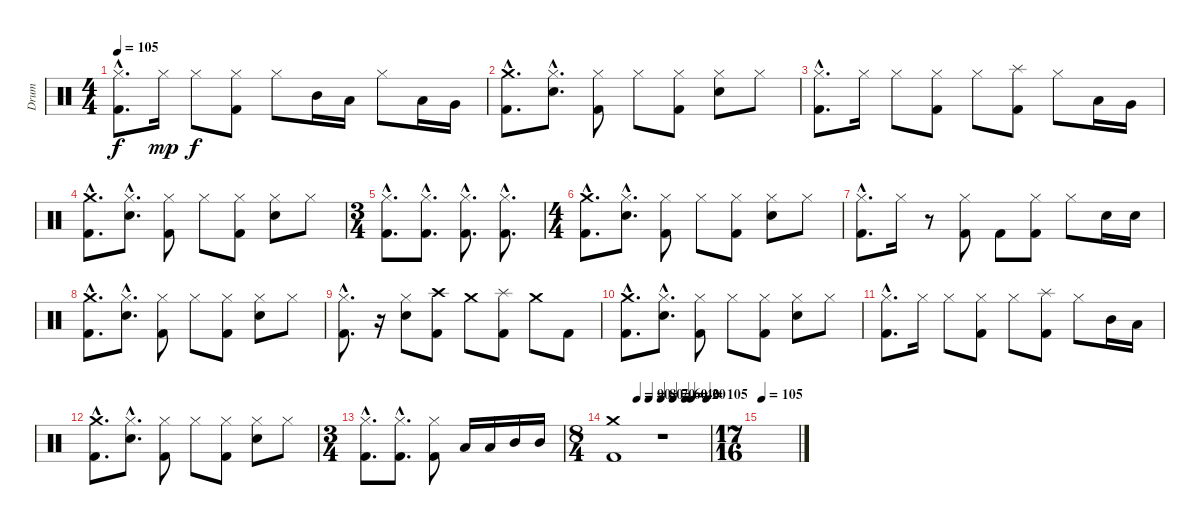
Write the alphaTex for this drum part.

\track ("Drum" "Drum") {instrument percussion}
\staff {score}
\articulation defaults
\ts (4 4)
\tempo 105
\clef neutral
\ks c
("Hi-Hat (closed)"{hac} "Kick (hit) 2"{hac}).8{d dy f} "Hi-Hat (closed)".16{dy mp} "Hi-Hat (closed)".8{dy f} ("Hi-Hat (closed)" "Kick (hit) 2").8 "Hi-Hat (closed)".8 "Mid Tom (hit)".16 "Low Tom (hit)".16 "Hi-Hat (closed)".8 "Low Tom (hit)".16 "Very Low Tom (hit)".16 |
("Crash medium (hit)"{hac} "Kick (hit) 2"{hac}).8{d} ("Hi-Hat (closed)"{hac} "Snare (hit) 2"{hac}).8{d} ("Hi-Hat (closed)" "Kick (hit) 2").8 "Hi-Hat (closed)".8 ("Hi-Hat (closed)" "Kick (hit) 2").8 ("Hi-Hat (closed)" "Snare (hit) 2").8 "Hi-Hat (closed)".8 |
("Hi-Hat (closed)"{hac} "Kick (hit) 2"{hac}).8{d} "Hi-Hat (closed)".16 "Hi-Hat (closed)".8 ("Hi-Hat (closed)" "Kick (hit) 2").8 "Hi-Hat (closed)".8 ("Splash (hit)" "Kick (hit) 2").8 "Hi-Hat (closed)".8 "Low Tom (hit)".16 "Very Low Tom (hit)".16 |
("Crash medium (hit)"{hac} "Kick (hit) 2"{hac}).8{d} ("Hi-Hat (closed)"{hac} "Snare (hit) 2"{hac}).8{d} ("Hi-Hat (closed)" "Kick (hit) 2").8 "Hi-Hat (closed)".8 ("Hi-Hat (closed)" "Kick (hit) 2").8 ("Hi-Hat (closed)" "Snare (hit) 2").8 "Hi-Hat (closed)".8 |
\ts (3 4)
("Hi-Hat (closed)"{hac} "Kick (hit) 2"{hac}).8{d} ("Hi-Hat (closed)"{hac} "Kick (hit) 2"{hac}).8{d} ("Hi-Hat (closed)"{hac} "Kick (hit) 2"{hac}).8{d} ("Hi-Hat (closed)"{hac} "Kick (hit) 2"{hac}).8{d} |
\ts (4 4)
("Crash medium (hit)"{hac} "Kick (hit) 2"{hac}).8{d} ("Hi-Hat (closed)"{hac} "Snare (hit) 2"{hac}).8{d} ("Hi-Hat (closed)" "Kick (hit) 2").8 "Hi-Hat (closed)".8 ("Hi-Hat (closed)" "Kick (hit) 2").8 ("Hi-Hat (closed)" "Snare (hit) 2").8 "Hi-Hat (closed)".8 |
("Hi-Hat (closed)"{hac} "Kick (hit) 2"{hac}).8{d} "Hi-Hat (closed)".16 r.8 ("Hi-Hat (closed)" "Kick (hit) 2").8 "Kick (hit) 2".8 ("Hi-Hat (closed)" "Kick (hit) 2").8 "Hi-Hat (closed)".8 "Snare (hit) 2".16 "Snare (hit) 2".16 |
("Crash medium (hit)"{hac} "Kick (hit) 2"{hac}).8{d} ("Hi-Hat (closed)"{hac} "Snare (hit) 2"{hac}).8{d} ("Hi-Hat (closed)" "Kick (hit) 2").8 "Hi-Hat (closed)".8 ("Hi-Hat (closed)" "Kick (hit) 2").8 ("Hi-Hat (closed)" "Snare (hit) 2").8 "Hi-Hat (closed)".8 |
("Hi-Hat (closed)"{hac} "Kick (hit) 2"{hac}).8{d} r.16 ("Hi-Hat (closed)" "Snare (hit) 2").8 ("Crash high (hit)" "Kick (hit) 2").8 "Crash medium (hit)".8 ("Splash (hit)" "Kick (hit) 2").8 "Crash medium (hit)".8 "Kick (hit) 2".8 |
("Crash medium (hit)"{hac} "Kick (hit) 2"{hac}).8{d} ("Hi-Hat (closed)"{hac} "Snare (hit) 2"{hac}).8{d} ("Hi-Hat (closed)" "Kick (hit) 2").8 "Hi-Hat (closed)".8 ("Hi-Hat (closed)" "Kick (hit) 2").8 ("Hi-Hat (closed)" "Snare (hit) 2").8 "Hi-Hat (closed)".8 |
("Hi-Hat (closed)"{hac} "Kick (hit) 2"{hac}).8{d} "Hi-Hat (closed)".16 "Hi-Hat (closed)".8 ("Hi-Hat (closed)" "Kick (hit) 2").8 "Hi-Hat (closed)".8 ("Splash (hit)" "Kick (hit) 2").8 "Hi-Hat (closed)".8 "Mid Tom (hit)".16 "Low Tom (hit)".16 |
("Crash medium (hit)"{hac} "Kick (hit) 2"{hac}).8{d} ("Hi-Hat (closed)"{hac} "Snare (hit) 2"{hac}).8{d} ("Hi-Hat (closed)" "Kick (hit) 2").8 "Hi-Hat (closed)".8 ("Hi-Hat (closed)" "Kick (hit) 2").8 ("Hi-Hat (closed)" "Snare (hit) 2").8 "Hi-Hat (closed)".8 |
\ts (3 4)
("Hi-Hat (closed)"{hac} "Kick (hit) 2"{hac}).8{d} ("Hi-Hat (closed)"{hac} "Kick (hit) 2"{hac}).8{d} ("Hi-Hat (closed)" "Kick (hit) 2").8 "Low Tom (hit)".16 "Low Tom (hit)".16 "Mid Tom (hit)".16 "Mid Tom (hit)".16 |
\ts (8 4)
\tempo (90 0.25)
\tempo (80 0.375)
\tempo (70 0.5)
\tempo (60 0.625)
\tempo (40 0.75)
\tempo (20 0.8125)
\tempo (105 0.96875)
("Crash medium (hit)" "Kick (hit) 2").1 r.1 |
\ts (17 16)
\tempo 105
